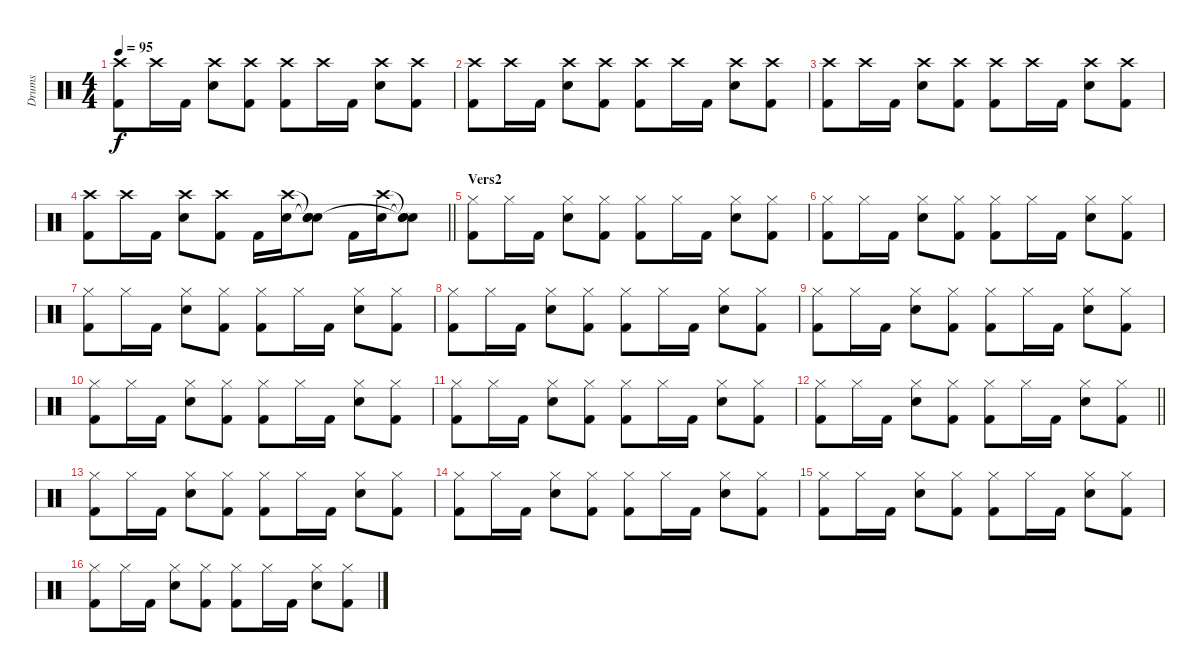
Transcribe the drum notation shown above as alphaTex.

\track ("Drums" "Drums") {instrument percussion}
\staff {score}
\articulation defaults
\ts (4 4)
\tempo 95
\clef neutral
\ks c
("Crash high (hit)" "Kick (hit) 2").8{dy f} "Crash high (hit)".16 "Kick (hit) 2".16 ("Crash high (hit)" "Snare (hit) 2").8 ("Crash high (hit)" "Kick (hit) 2").8 ("Crash high (hit)" "Kick (hit) 2").8 "Crash high (hit)".16 "Kick (hit) 2".16 ("Crash high (hit)" "Snare (hit) 2").8 ("Crash high (hit)" "Kick (hit) 2").8 |
("Crash high (hit)" "Kick (hit) 2").8 "Crash high (hit)".16 "Kick (hit) 2".16 ("Crash high (hit)" "Snare (hit) 2").8 ("Crash high (hit)" "Kick (hit) 2").8 ("Crash high (hit)" "Kick (hit) 2").8 "Crash high (hit)".16 "Kick (hit) 2".16 ("Crash high (hit)" "Snare (hit) 2").8 ("Crash high (hit)" "Kick (hit) 2").8 |
("Crash high (hit)" "Kick (hit) 2").8 "Crash high (hit)".16 "Kick (hit) 2".16 ("Crash high (hit)" "Snare (hit) 2").8 ("Crash high (hit)" "Kick (hit) 2").8 ("Crash high (hit)" "Kick (hit) 2").8 "Crash high (hit)".16 "Kick (hit) 2".16 ("Crash high (hit)" "Snare (hit) 2").8 ("Crash high (hit)" "Kick (hit) 2").8 |
\barLineRight lightlight
("Crash high (hit)" "Kick (hit) 2").8 "Crash high (hit)".16 "Kick (hit) 2".16 ("Crash high (hit)" "Snare (hit) 2").8 ("Crash high (hit)" "Kick (hit) 2").8 "Kick (hit) 2".16 ("Crash high (hit)" "Snare (hit) 2").16 ("Snare (hit)"{t} "Snare (hit)"{t} "Snare (hit)").8 "Kick (hit) 2".16 ("Crash high (hit)" "Snare (hit) 2").16 ("Snare (hit)"{t} "Snare (hit)"{t} "Snare (hit)"{t}).8 |
\section ("" "Vers2")
("Hi-Hat (closed)" "Kick (hit) 2").8 "Hi-Hat (closed)".16 "Kick (hit) 2".16 ("Hi-Hat (closed)" "Snare (hit) 2").8 ("Hi-Hat (closed)" "Kick (hit) 2").8 ("Hi-Hat (closed)" "Kick (hit) 2").8 "Hi-Hat (closed)".16 "Kick (hit) 2".16 ("Hi-Hat (closed)" "Snare (hit) 2").8 ("Hi-Hat (closed)" "Kick (hit) 2").8 |
("Hi-Hat (closed)" "Kick (hit) 2").8 "Hi-Hat (closed)".16 "Kick (hit) 2".16 ("Hi-Hat (closed)" "Snare (hit) 2").8 ("Hi-Hat (closed)" "Kick (hit) 2").8 ("Hi-Hat (closed)" "Kick (hit) 2").8 "Hi-Hat (closed)".16 "Kick (hit) 2".16 ("Hi-Hat (closed)" "Snare (hit) 2").8 ("Hi-Hat (closed)" "Kick (hit) 2").8 |
("Hi-Hat (closed)" "Kick (hit) 2").8 "Hi-Hat (closed)".16 "Kick (hit) 2".16 ("Hi-Hat (closed)" "Snare (hit) 2").8 ("Hi-Hat (closed)" "Kick (hit) 2").8 ("Hi-Hat (closed)" "Kick (hit) 2").8 "Hi-Hat (closed)".16 "Kick (hit) 2".16 ("Hi-Hat (closed)" "Snare (hit) 2").8 ("Hi-Hat (closed)" "Kick (hit) 2").8 |
("Hi-Hat (closed)" "Kick (hit) 2").8 "Hi-Hat (closed)".16 "Kick (hit) 2".16 ("Hi-Hat (closed)" "Snare (hit) 2").8 ("Hi-Hat (closed)" "Kick (hit) 2").8 ("Hi-Hat (closed)" "Kick (hit) 2").8 "Hi-Hat (closed)".16 "Kick (hit) 2".16 ("Hi-Hat (closed)" "Snare (hit) 2").8 ("Hi-Hat (closed)" "Kick (hit) 2").8 |
("Hi-Hat (closed)" "Kick (hit) 2").8 "Hi-Hat (closed)".16 "Kick (hit) 2".16 ("Hi-Hat (closed)" "Snare (hit) 2").8 ("Hi-Hat (closed)" "Kick (hit) 2").8 ("Hi-Hat (closed)" "Kick (hit) 2").8 "Hi-Hat (closed)".16 "Kick (hit) 2".16 ("Hi-Hat (closed)" "Snare (hit) 2").8 ("Hi-Hat (closed)" "Kick (hit) 2").8 |
("Hi-Hat (closed)" "Kick (hit) 2").8 "Hi-Hat (closed)".16 "Kick (hit) 2".16 ("Hi-Hat (closed)" "Snare (hit) 2").8 ("Hi-Hat (closed)" "Kick (hit) 2").8 ("Hi-Hat (closed)" "Kick (hit) 2").8 "Hi-Hat (closed)".16 "Kick (hit) 2".16 ("Hi-Hat (closed)" "Snare (hit) 2").8 ("Hi-Hat (closed)" "Kick (hit) 2").8 |
("Hi-Hat (closed)" "Kick (hit) 2").8 "Hi-Hat (closed)".16 "Kick (hit) 2".16 ("Hi-Hat (closed)" "Snare (hit) 2").8 ("Hi-Hat (closed)" "Kick (hit) 2").8 ("Hi-Hat (closed)" "Kick (hit) 2").8 "Hi-Hat (closed)".16 "Kick (hit) 2".16 ("Hi-Hat (closed)" "Snare (hit) 2").8 ("Hi-Hat (closed)" "Kick (hit) 2").8 |
\barLineRight lightlight
("Hi-Hat (closed)" "Kick (hit) 2").8 "Hi-Hat (closed)".16 "Kick (hit) 2".16 ("Hi-Hat (closed)" "Snare (hit) 2").8 ("Hi-Hat (closed)" "Kick (hit) 2").8 ("Hi-Hat (closed)" "Kick (hit) 2").8 "Hi-Hat (closed)".16 "Kick (hit) 2".16 ("Hi-Hat (closed)" "Snare (hit) 2").8 ("Hi-Hat (closed)" "Kick (hit) 2").8 |
("Hi-Hat (closed)" "Kick (hit) 2").8 "Hi-Hat (closed)".16 "Kick (hit) 2".16 ("Hi-Hat (closed)" "Snare (hit) 2").8 ("Hi-Hat (closed)" "Kick (hit) 2").8 ("Hi-Hat (closed)" "Kick (hit) 2").8 "Hi-Hat (closed)".16 "Kick (hit) 2".16 ("Hi-Hat (closed)" "Snare (hit) 2").8 ("Hi-Hat (closed)" "Kick (hit) 2").8 |
("Hi-Hat (closed)" "Kick (hit) 2").8 "Hi-Hat (closed)".16 "Kick (hit) 2".16 ("Hi-Hat (closed)" "Snare (hit) 2").8 ("Hi-Hat (closed)" "Kick (hit) 2").8 ("Hi-Hat (closed)" "Kick (hit) 2").8 "Hi-Hat (closed)".16 "Kick (hit) 2".16 ("Hi-Hat (closed)" "Snare (hit) 2").8 ("Hi-Hat (closed)" "Kick (hit) 2").8 |
("Hi-Hat (closed)" "Kick (hit) 2").8 "Hi-Hat (closed)".16 "Kick (hit) 2".16 ("Hi-Hat (closed)" "Snare (hit) 2").8 ("Hi-Hat (closed)" "Kick (hit) 2").8 ("Hi-Hat (closed)" "Kick (hit) 2").8 "Hi-Hat (closed)".16 "Kick (hit) 2".16 ("Hi-Hat (closed)" "Snare (hit) 2").8 ("Hi-Hat (closed)" "Kick (hit) 2").8 |
("Hi-Hat (closed)" "Kick (hit) 2").8 "Hi-Hat (closed)".16 "Kick (hit) 2".16 ("Hi-Hat (closed)" "Snare (hit) 2").8 ("Hi-Hat (closed)" "Kick (hit) 2").8 ("Hi-Hat (closed)" "Kick (hit) 2").8 "Hi-Hat (closed)".16 "Kick (hit) 2".16 ("Hi-Hat (closed)" "Snare (hit) 2").8 ("Hi-Hat (closed)" "Kick (hit) 2").8
